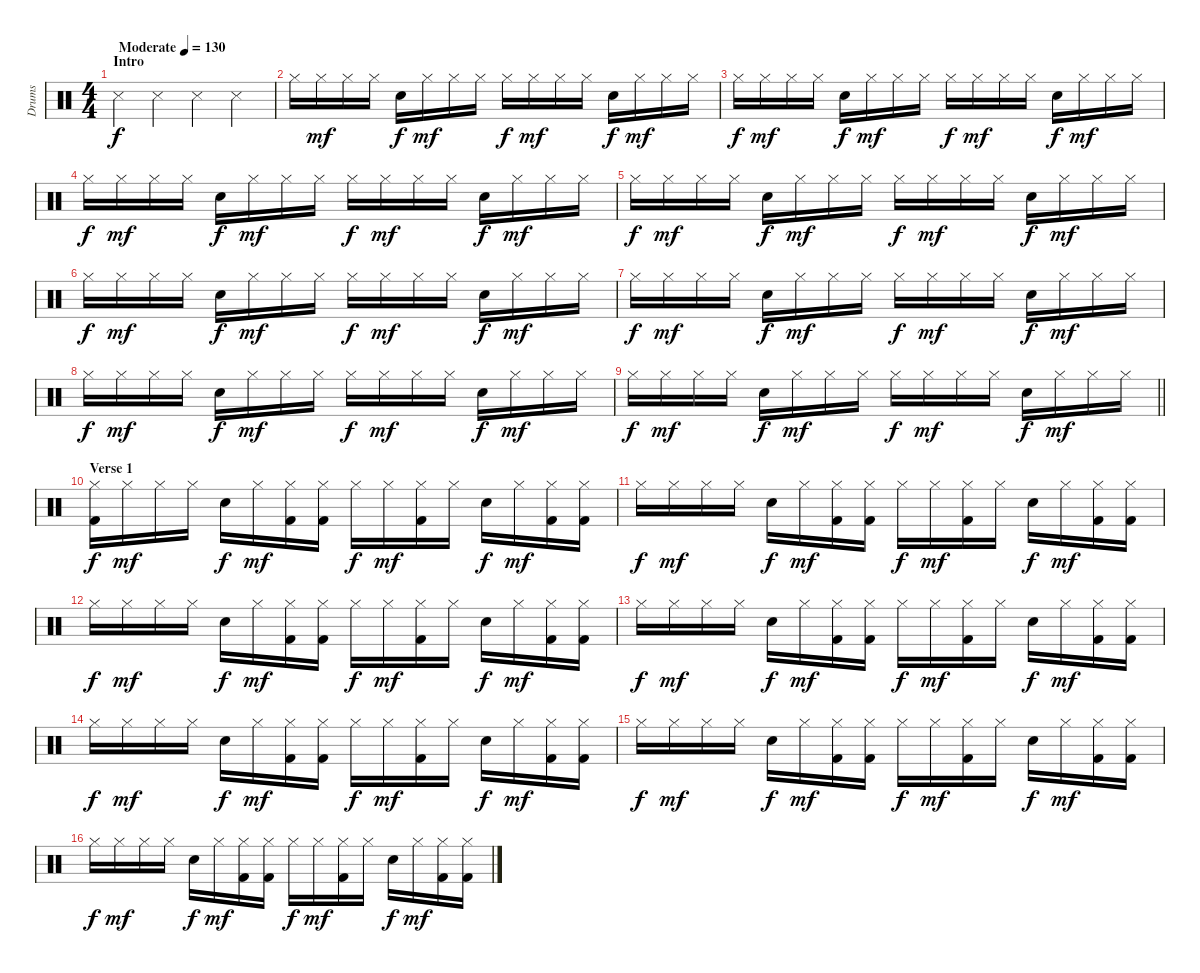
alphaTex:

\track ("Drums" "Drums") {instrument percussion}
\staff {score}
\articulation defaults
\ts (4 4)
\section ("" "Intro")
\tempo (130 "Moderate")
\clef neutral
\ks c "Metronome (hit)".4{dy f} "Metronome (hit)".4 "Metronome (hit)".4 "Metronome (hit)".4
|
"Hi-Hat (closed)".16 "Hi-Hat (closed)".16{dy mf} "Hi-Hat (closed)".16 "Hi-Hat (closed)".16 "Snare (hit) 2".16{dy f} "Hi-Hat (closed)".16{dy mf} "Hi-Hat (closed)".16 "Hi-Hat (closed)".16 "Hi-Hat (closed)".16{dy f} "Hi-Hat (closed)".16{dy mf} "Hi-Hat (closed)".16 "Hi-Hat (closed)".16 "Snare (hit) 2".16{dy f} "Hi-Hat (closed)".16{dy mf} "Hi-Hat (closed)".16 "Hi-Hat (closed)".16 |
"Hi-Hat (closed)".16{dy f} "Hi-Hat (closed)".16{dy mf} "Hi-Hat (closed)".16 "Hi-Hat (closed)".16 "Snare (hit) 2".16{dy f} "Hi-Hat (closed)".16{dy mf} "Hi-Hat (closed)".16 "Hi-Hat (closed)".16 "Hi-Hat (closed)".16{dy f} "Hi-Hat (closed)".16{dy mf} "Hi-Hat (closed)".16 "Hi-Hat (closed)".16 "Snare (hit) 2".16{dy f} "Hi-Hat (closed)".16{dy mf} "Hi-Hat (closed)".16 "Hi-Hat (closed)".16 |
"Hi-Hat (closed)".16{dy f} "Hi-Hat (closed)".16{dy mf} "Hi-Hat (closed)".16 "Hi-Hat (closed)".16 "Snare (hit) 2".16{dy f} "Hi-Hat (closed)".16{dy mf} "Hi-Hat (closed)".16 "Hi-Hat (closed)".16 "Hi-Hat (closed)".16{dy f} "Hi-Hat (closed)".16{dy mf} "Hi-Hat (closed)".16 "Hi-Hat (closed)".16 "Snare (hit) 2".16{dy f} "Hi-Hat (closed)".16{dy mf} "Hi-Hat (closed)".16 "Hi-Hat (closed)".16 |
"Hi-Hat (closed)".16{dy f} "Hi-Hat (closed)".16{dy mf} "Hi-Hat (closed)".16 "Hi-Hat (closed)".16 "Snare (hit) 2".16{dy f} "Hi-Hat (closed)".16{dy mf} "Hi-Hat (closed)".16 "Hi-Hat (closed)".16 "Hi-Hat (closed)".16{dy f} "Hi-Hat (closed)".16{dy mf} "Hi-Hat (closed)".16 "Hi-Hat (closed)".16 "Snare (hit) 2".16{dy f} "Hi-Hat (closed)".16{dy mf} "Hi-Hat (closed)".16 "Hi-Hat (closed)".16 |
"Hi-Hat (closed)".16{dy f} "Hi-Hat (closed)".16{dy mf} "Hi-Hat (closed)".16 "Hi-Hat (closed)".16 "Snare (hit) 2".16{dy f} "Hi-Hat (closed)".16{dy mf} "Hi-Hat (closed)".16 "Hi-Hat (closed)".16 "Hi-Hat (closed)".16{dy f} "Hi-Hat (closed)".16{dy mf} "Hi-Hat (closed)".16 "Hi-Hat (closed)".16 "Snare (hit) 2".16{dy f} "Hi-Hat (closed)".16{dy mf} "Hi-Hat (closed)".16 "Hi-Hat (closed)".16 |
"Hi-Hat (closed)".16{dy f} "Hi-Hat (closed)".16{dy mf} "Hi-Hat (closed)".16 "Hi-Hat (closed)".16 "Snare (hit) 2".16{dy f} "Hi-Hat (closed)".16{dy mf} "Hi-Hat (closed)".16 "Hi-Hat (closed)".16 "Hi-Hat (closed)".16{dy f} "Hi-Hat (closed)".16{dy mf} "Hi-Hat (closed)".16 "Hi-Hat (closed)".16 "Snare (hit) 2".16{dy f} "Hi-Hat (closed)".16{dy mf} "Hi-Hat (closed)".16 "Hi-Hat (closed)".16 |
"Hi-Hat (closed)".16{dy f} "Hi-Hat (closed)".16{dy mf} "Hi-Hat (closed)".16 "Hi-Hat (closed)".16 "Snare (hit) 2".16{dy f} "Hi-Hat (closed)".16{dy mf} "Hi-Hat (closed)".16 "Hi-Hat (closed)".16 "Hi-Hat (closed)".16{dy f} "Hi-Hat (closed)".16{dy mf} "Hi-Hat (closed)".16 "Hi-Hat (closed)".16 "Snare (hit) 2".16{dy f} "Hi-Hat (closed)".16{dy mf} "Hi-Hat (closed)".16 "Hi-Hat (closed)".16 |
\barLineRight lightlight "Hi-Hat (closed)".16{dy f} "Hi-Hat (closed)".16{dy mf} "Hi-Hat (closed)".16 "Hi-Hat (closed)".16 "Snare (hit) 2".16{dy f} "Hi-Hat (closed)".16{dy mf} "Hi-Hat (closed)".16 "Hi-Hat (closed)".16 "Hi-Hat (closed)".16{dy f} "Hi-Hat (closed)".16{dy mf} "Hi-Hat (closed)".16 "Hi-Hat (closed)".16 "Snare (hit) 2".16{dy f} "Hi-Hat (closed)".16{dy mf} "Hi-Hat (closed)".16 "Hi-Hat (closed)".16
|
\section ("" "Verse 1")
("Hi-Hat (closed)" "Kick (hit) 2").16{dy f} "Hi-Hat (closed)".16{dy mf} "Hi-Hat (closed)".16 "Hi-Hat (closed)".16 "Snare (hit) 2".16{dy f} "Hi-Hat (closed)".16{dy mf} ("Hi-Hat (closed)" "Kick (hit) 2").16 ("Hi-Hat (closed)" "Kick (hit) 2").16 "Hi-Hat (closed)".16{dy f} "Hi-Hat (closed)".16{dy mf} ("Hi-Hat (closed)" "Kick (hit) 2").16 "Hi-Hat (closed)".16 "Snare (hit) 2".16{dy f} "Hi-Hat (closed)".16{dy mf} ("Hi-Hat (closed)" "Kick (hit) 2").16 ("Hi-Hat (closed)" "Kick (hit) 2").16 |
"Hi-Hat (closed)".16{dy f} "Hi-Hat (closed)".16{dy mf} "Hi-Hat (closed)".16 "Hi-Hat (closed)".16 "Snare (hit) 2".16{dy f} "Hi-Hat (closed)".16{dy mf} ("Hi-Hat (closed)" "Kick (hit) 2").16 ("Hi-Hat (closed)" "Kick (hit) 2").16 "Hi-Hat (closed)".16{dy f} "Hi-Hat (closed)".16{dy mf} ("Hi-Hat (closed)" "Kick (hit) 2").16 "Hi-Hat (closed)".16 "Snare (hit) 2".16{dy f} "Hi-Hat (closed)".16{dy mf} ("Hi-Hat (closed)" "Kick (hit) 2").16 ("Hi-Hat (closed)" "Kick (hit) 2").16 |
"Hi-Hat (closed)".16{dy f} "Hi-Hat (closed)".16{dy mf} "Hi-Hat (closed)".16 "Hi-Hat (closed)".16 "Snare (hit) 2".16{dy f} "Hi-Hat (closed)".16{dy mf} ("Hi-Hat (closed)" "Kick (hit) 2").16 ("Hi-Hat (closed)" "Kick (hit) 2").16 "Hi-Hat (closed)".16{dy f} "Hi-Hat (closed)".16{dy mf} ("Hi-Hat (closed)" "Kick (hit) 2").16 "Hi-Hat (closed)".16 "Snare (hit) 2".16{dy f} "Hi-Hat (closed)".16{dy mf} ("Hi-Hat (closed)" "Kick (hit) 2").16 ("Hi-Hat (closed)" "Kick (hit) 2").16 |
"Hi-Hat (closed)".16{dy f} "Hi-Hat (closed)".16{dy mf} "Hi-Hat (closed)".16 "Hi-Hat (closed)".16 "Snare (hit) 2".16{dy f} "Hi-Hat (closed)".16{dy mf} ("Hi-Hat (closed)" "Kick (hit) 2").16 ("Hi-Hat (closed)" "Kick (hit) 2").16 "Hi-Hat (closed)".16{dy f} "Hi-Hat (closed)".16{dy mf} ("Hi-Hat (closed)" "Kick (hit) 2").16 "Hi-Hat (closed)".16 "Snare (hit) 2".16{dy f} "Hi-Hat (closed)".16{dy mf} ("Hi-Hat (closed)" "Kick (hit) 2").16 ("Hi-Hat (closed)" "Kick (hit) 2").16 |
"Hi-Hat (closed)".16{dy f} "Hi-Hat (closed)".16{dy mf} "Hi-Hat (closed)".16 "Hi-Hat (closed)".16 "Snare (hit) 2".16{dy f} "Hi-Hat (closed)".16{dy mf} ("Hi-Hat (closed)" "Kick (hit) 2").16 ("Hi-Hat (closed)" "Kick (hit) 2").16 "Hi-Hat (closed)".16{dy f} "Hi-Hat (closed)".16{dy mf} ("Hi-Hat (closed)" "Kick (hit) 2").16 "Hi-Hat (closed)".16 "Snare (hit) 2".16{dy f} "Hi-Hat (closed)".16{dy mf} ("Hi-Hat (closed)" "Kick (hit) 2").16 ("Hi-Hat (closed)" "Kick (hit) 2").16 |
"Hi-Hat (closed)".16{dy f} "Hi-Hat (closed)".16{dy mf} "Hi-Hat (closed)".16 "Hi-Hat (closed)".16 "Snare (hit) 2".16{dy f} "Hi-Hat (closed)".16{dy mf} ("Hi-Hat (closed)" "Kick (hit) 2").16 ("Hi-Hat (closed)" "Kick (hit) 2").16 "Hi-Hat (closed)".16{dy f} "Hi-Hat (closed)".16{dy mf} ("Hi-Hat (closed)" "Kick (hit) 2").16 "Hi-Hat (closed)".16 "Snare (hit) 2".16{dy f} "Hi-Hat (closed)".16{dy mf} ("Hi-Hat (closed)" "Kick (hit) 2").16 ("Hi-Hat (closed)" "Kick (hit) 2").16 |
"Hi-Hat (closed)".16{dy f} "Hi-Hat (closed)".16{dy mf} "Hi-Hat (closed)".16 "Hi-Hat (closed)".16 "Snare (hit) 2".16{dy f} "Hi-Hat (closed)".16{dy mf} ("Hi-Hat (closed)" "Kick (hit) 2").16 ("Hi-Hat (closed)" "Kick (hit) 2").16 "Hi-Hat (closed)".16{dy f} "Hi-Hat (closed)".16{dy mf} ("Hi-Hat (closed)" "Kick (hit) 2").16 "Hi-Hat (closed)".16 "Snare (hit) 2".16{dy f} "Hi-Hat (closed)".16{dy mf} ("Hi-Hat (closed)" "Kick (hit) 2").16 ("Hi-Hat (closed)" "Kick (hit) 2").16
